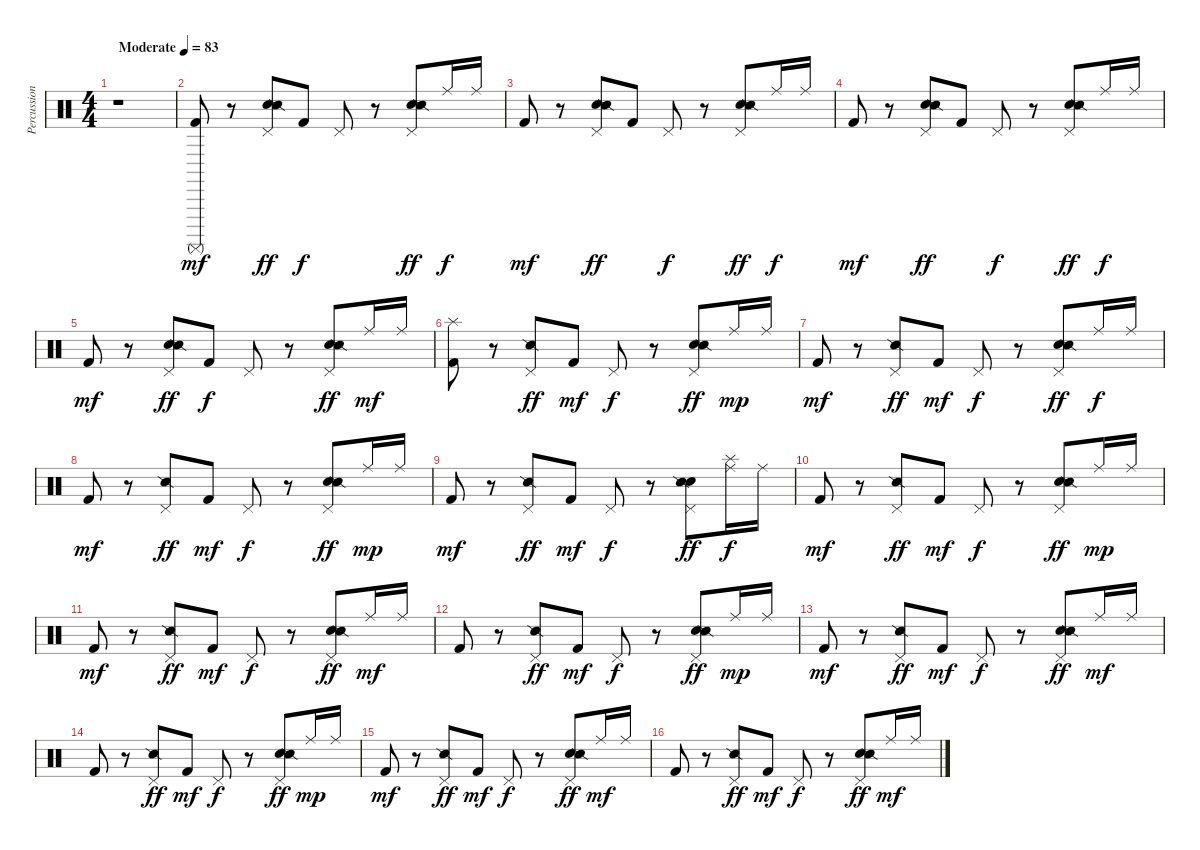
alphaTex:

\track ("Percussion" "Percussion") {instrument percussion}
\staff {score}
\articulation defaults
\ts (4 4)
\tempo (83 "Moderate")
\clef neutral
\ks c
r.1{dy mf} |
("Kick (hit) 2" "Surdo (mute)").8 r.8 ("Pedal Hi-Hat (hit)" "Hand Clap (hit)" "Snare (side stick) 2").8{dy ff} "Kick (hit) 2".8{dy f} "Pedal Hi-Hat (hit)".8 r.8 ("Pedal Hi-Hat (hit)" "Hand Clap (hit)" "Snare (side stick) 2").8{dy ff} "Ride (middle)".16{dy f} "Ride (middle)".16 |
"Kick (hit) 2".8{dy mf} r.8 ("Pedal Hi-Hat (hit)" "Hand Clap (hit)" "Snare (side stick) 2").8{dy ff} "Kick (hit) 2".8 "Pedal Hi-Hat (hit)".8{dy f} r.8 ("Pedal Hi-Hat (hit)" "Hand Clap (hit)" "Snare (side stick) 2").8{dy ff} "Ride (middle)".16{dy f} "Ride (middle)".16 |
"Kick (hit) 2".8{dy mf} r.8 ("Pedal Hi-Hat (hit)" "Hand Clap (hit)" "Snare (side stick) 2").8{dy ff} "Kick (hit) 2".8 "Pedal Hi-Hat (hit)".8{dy f} r.8 ("Pedal Hi-Hat (hit)" "Hand Clap (hit)" "Snare (side stick) 2").8{dy ff} "Ride (middle)".16{dy f} "Ride (middle)".16 |
"Kick (hit) 2".8{dy mf} r.8 ("Pedal Hi-Hat (hit)" "Hand Clap (hit)" "Snare (side stick) 2").8{dy ff} "Kick (hit) 2".8{dy f} "Pedal Hi-Hat (hit)".8 r.8 ("Pedal Hi-Hat (hit)" "Hand Clap (hit)" "Snare (side stick) 2").8{dy ff} "Ride (middle)".16{dy mf} "Ride (middle)".16 |
("Kick (hit) 2" "Splash (hit)").8 r.8 ("Pedal Hi-Hat (hit)" "Snare (side stick) 2").8{dy ff} "Kick (hit) 2".8{dy mf} "Pedal Hi-Hat (hit)".8{dy f} r.8 ("Pedal Hi-Hat (hit)" "Hand Clap (hit)" "Snare (side stick) 2").8{dy ff} "Ride (middle)".16{dy mp} "Ride (middle)".16 |
"Kick (hit) 2".8{dy mf} r.8 ("Pedal Hi-Hat (hit)" "Snare (side stick) 2").8{dy ff} "Kick (hit) 2".8{dy mf} "Pedal Hi-Hat (hit)".8{dy f} r.8 ("Pedal Hi-Hat (hit)" "Hand Clap (hit)" "Snare (side stick) 2").8{dy ff} "Ride (middle)".16{dy f} "Ride (middle)".16 |
"Kick (hit) 2".8{dy mf} r.8 ("Pedal Hi-Hat (hit)" "Snare (side stick) 2").8{dy ff} "Kick (hit) 2".8{dy mf} "Pedal Hi-Hat (hit)".8{dy f} r.8 ("Pedal Hi-Hat (hit)" "Hand Clap (hit)" "Snare (side stick) 2").8{dy ff} "Ride (middle)".16{dy mp} "Ride (middle)".16 |
"Kick (hit) 2".8{dy mf} r.8 ("Pedal Hi-Hat (hit)" "Snare (side stick) 2").8{dy ff} "Kick (hit) 2".8{dy mf} "Pedal Hi-Hat (hit)".8{dy f} r.8 ("Pedal Hi-Hat (hit)" "Hand Clap (hit)" "Snare (side stick) 2").8{dy ff} ("Ride (middle)" "Splash (hit)").16{dy f} "Ride (middle)".16 |
"Kick (hit) 2".8{dy mf} r.8 ("Pedal Hi-Hat (hit)" "Snare (side stick) 2").8{dy ff} "Kick (hit) 2".8{dy mf} "Pedal Hi-Hat (hit)".8{dy f} r.8 ("Pedal Hi-Hat (hit)" "Hand Clap (hit)" "Snare (side stick) 2").8{dy ff} "Ride (middle)".16{dy mp} "Ride (middle)".16 |
"Kick (hit) 2".8{dy mf} r.8 ("Pedal Hi-Hat (hit)" "Snare (side stick) 2").8{dy ff} "Kick (hit) 2".8{dy mf} "Pedal Hi-Hat (hit)".8{dy f} r.8 ("Pedal Hi-Hat (hit)" "Hand Clap (hit)" "Snare (side stick) 2").8{dy ff} "Ride (middle)".16{dy mf} "Ride (middle)".16 |
"Kick (hit) 2".8 r.8 ("Pedal Hi-Hat (hit)" "Snare (side stick) 2").8{dy ff} "Kick (hit) 2".8{dy mf} "Pedal Hi-Hat (hit)".8{dy f} r.8 ("Pedal Hi-Hat (hit)" "Hand Clap (hit)" "Snare (side stick) 2").8{dy ff} "Ride (middle)".16{dy mp} "Ride (middle)".16 |
"Kick (hit) 2".8{dy mf} r.8 ("Pedal Hi-Hat (hit)" "Snare (side stick) 2").8{dy ff} "Kick (hit) 2".8{dy mf} "Pedal Hi-Hat (hit)".8{dy f} r.8 ("Pedal Hi-Hat (hit)" "Hand Clap (hit)" "Snare (side stick) 2").8{dy ff} "Ride (middle)".16{dy mf} "Ride (middle)".16 |
"Kick (hit) 2".8 r.8 ("Pedal Hi-Hat (hit)" "Snare (side stick) 2").8{dy ff} "Kick (hit) 2".8{dy mf} "Pedal Hi-Hat (hit)".8{dy f} r.8 ("Pedal Hi-Hat (hit)" "Hand Clap (hit)" "Snare (side stick) 2").8{dy ff} "Ride (middle)".16{dy mp} "Ride (middle)".16 |
"Kick (hit) 2".8{dy mf} r.8 ("Pedal Hi-Hat (hit)" "Snare (side stick) 2").8{dy ff} "Kick (hit) 2".8{dy mf} "Pedal Hi-Hat (hit)".8{dy f} r.8 ("Pedal Hi-Hat (hit)" "Hand Clap (hit)" "Snare (side stick) 2").8{dy ff} "Ride (middle)".16{dy mf} "Ride (middle)".16 |
"Kick (hit) 2".8 r.8 ("Pedal Hi-Hat (hit)" "Snare (side stick) 2").8{dy ff} "Kick (hit) 2".8{dy mf} "Pedal Hi-Hat (hit)".8{dy f} r.8 ("Pedal Hi-Hat (hit)" "Hand Clap (hit)" "Snare (side stick) 2").8{dy ff} "Ride (middle)".16{dy mf} "Ride (middle)".16
